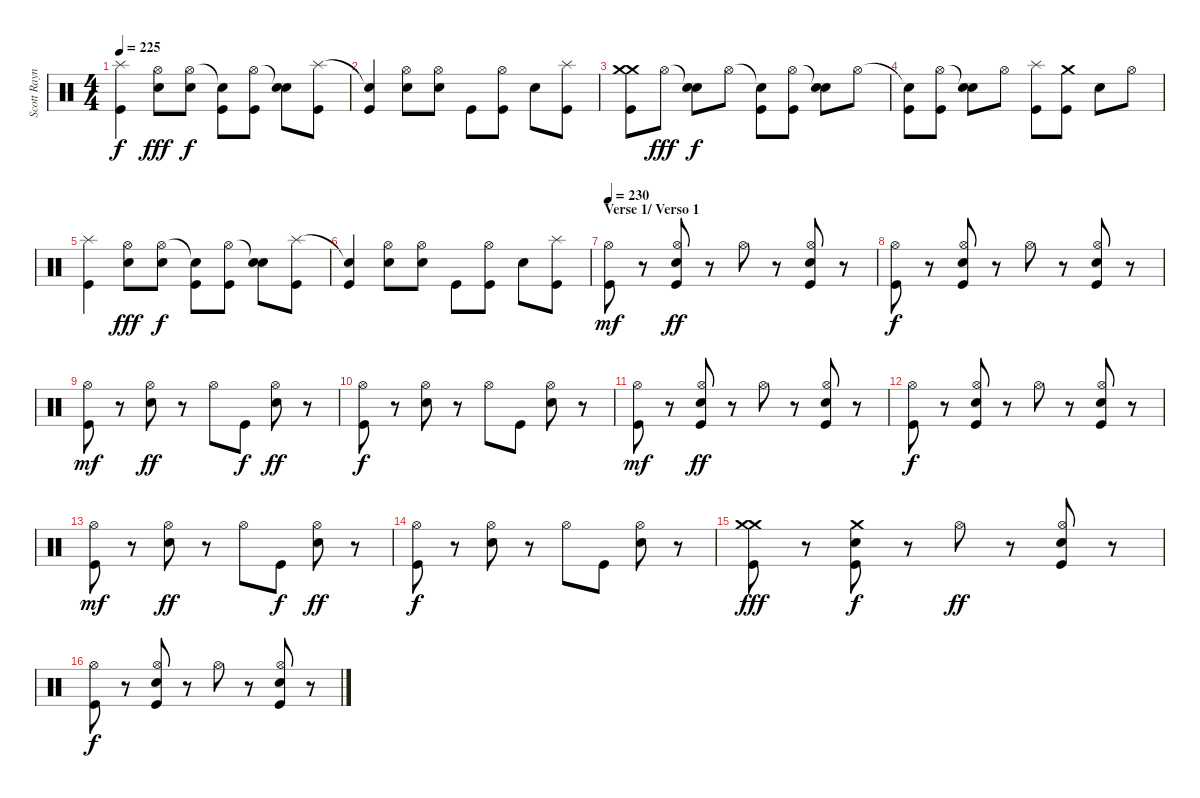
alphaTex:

\track ("Scott Raynor - Drums/Bateria" "Scott Rayn") {instrument percussion}
\staff {score}
\articulation defaults
\ts (4 4)
\tempo 225
\clef neutral
\ks c
("Splash (hit)" "Kick (hit)").4{dy f} ("Hi-Hat (open)" "Electric Snare (hit)").8{dy fff} ("Hi-Hat (open)" "Electric Snare (hit)").8{dy f} ("Snare (hit)"{t} "Kick (hit)").8 ("Hi-Hat (open)" "Kick (hit)").8 ("Snare (hit)"{t} "Electric Snare (hit)").8 ("Splash (hit)" "Kick (hit)").8 |
("Snare (hit)"{t} "Kick (hit)").4 ("Hi-Hat (open)" "Electric Snare (hit)").8 ("Hi-Hat (open)" "Electric Snare (hit)").8 "Kick (hit)".8 ("Hi-Hat (open)" "Kick (hit)").8 "Electric Snare (hit)".8 ("Splash (hit)" "Kick (hit)").8 |
("Crash medium (hit)" "Crash medium (hit)" "Kick (hit)").8 "Hi-Hat (open)".8{dy fff} ("Snare (hit)"{t} "Electric Snare (hit)").8{dy f} "Hi-Hat (open)".8 ("Snare (hit)"{t} "Kick (hit)").8 ("Hi-Hat (open)" "Kick (hit)").8 ("Snare (hit)"{t} "Electric Snare (hit)").8 "Hi-Hat (open)".8 |
("Snare (hit)"{t} "Kick (hit)").8 ("Hi-Hat (open)" "Kick (hit)").8 ("Snare (hit)"{t} "Electric Snare (hit)").8 "Hi-Hat (open)".8 ("Splash (hit)" "Kick (hit)").8 ("Crash medium (hit)" "Kick (hit)").8 "Electric Snare (hit)".8 "Hi-Hat (open)".8 |
("Splash (hit)" "Kick (hit)").4 ("Hi-Hat (open)" "Electric Snare (hit)").8{dy fff} ("Hi-Hat (open)" "Electric Snare (hit)").8{dy f} ("Snare (hit)"{t} "Kick (hit)").8 ("Hi-Hat (open)" "Kick (hit)").8 ("Snare (hit)"{t} "Electric Snare (hit)").8 ("Splash (hit)" "Kick (hit)").8 |
("Snare (hit)"{t} "Kick (hit)").4 ("Hi-Hat (open)" "Electric Snare (hit)").8 ("Hi-Hat (open)" "Electric Snare (hit)").8 "Kick (hit)".8 ("Hi-Hat (open)" "Kick (hit)").8 "Electric Snare (hit)".8 ("Splash (hit)" "Kick (hit)").8 |
\section ("" "Verse 1/ Verso 1")
\tempo 230
("Hi-Hat (open)" "Kick (hit)").8{dy mf} r.8 ("Hi-Hat (open)" "Electric Snare (hit)" "Kick (hit)").8{dy ff} r.8 "Hi-Hat (open)".8 r.8 ("Hi-Hat (open)" "Electric Snare (hit)" "Kick (hit)").8 r.8 |
("Hi-Hat (open)" "Kick (hit)").8{dy f} r.8 ("Hi-Hat (open)" "Electric Snare (hit)" "Kick (hit)").8 r.8 "Hi-Hat (open)".8 r.8 ("Hi-Hat (open)" "Electric Snare (hit)" "Kick (hit)").8 r.8 |
("Hi-Hat (open)" "Kick (hit)").8{dy mf} r.8 ("Hi-Hat (open)" "Electric Snare (hit)").8{dy ff} r.8 "Hi-Hat (open)".8 "Kick (hit)".8{dy f} ("Hi-Hat (open)" "Electric Snare (hit)").8{dy ff} r.8 |
("Hi-Hat (open)" "Kick (hit)").8{dy f} r.8 ("Hi-Hat (open)" "Electric Snare (hit)").8 r.8 "Hi-Hat (open)".8 "Kick (hit)".8 ("Hi-Hat (open)" "Electric Snare (hit)").8 r.8 |
("Hi-Hat (open)" "Kick (hit)").8{dy mf} r.8 ("Hi-Hat (open)" "Electric Snare (hit)" "Kick (hit)").8{dy ff} r.8 "Hi-Hat (open)".8 r.8 ("Hi-Hat (open)" "Electric Snare (hit)" "Kick (hit)").8 r.8 |
("Hi-Hat (open)" "Kick (hit)").8{dy f} r.8 ("Hi-Hat (open)" "Electric Snare (hit)" "Kick (hit)").8 r.8 "Hi-Hat (open)".8 r.8 ("Hi-Hat (open)" "Electric Snare (hit)" "Kick (hit)").8 r.8 |
("Hi-Hat (open)" "Kick (hit)").8{dy mf} r.8 ("Hi-Hat (open)" "Electric Snare (hit)").8{dy ff} r.8 "Hi-Hat (open)".8 "Kick (hit)".8{dy f} ("Hi-Hat (open)" "Electric Snare (hit)").8{dy ff} r.8 |
("Hi-Hat (open)" "Kick (hit)").8{dy f} r.8 ("Hi-Hat (open)" "Electric Snare (hit)").8 r.8 "Hi-Hat (open)".8 "Kick (hit)".8 ("Hi-Hat (open)" "Electric Snare (hit)").8 r.8 |
("Crash medium (hit)" "Crash medium (hit)" "Kick (hit)").8{dy fff} r.8 ("Crash medium (hit)" "Electric Snare (hit)" "Kick (hit)").8{dy f} r.8 "Hi-Hat (open)".8{dy ff} r.8 ("Hi-Hat (open)" "Electric Snare (hit)" "Kick (hit)").8 r.8 |
("Hi-Hat (open)" "Kick (hit)").8{dy f} r.8 ("Hi-Hat (open)" "Electric Snare (hit)" "Kick (hit)").8 r.8 "Hi-Hat (open)".8 r.8 ("Hi-Hat (open)" "Electric Snare (hit)" "Kick (hit)").8 r.8
